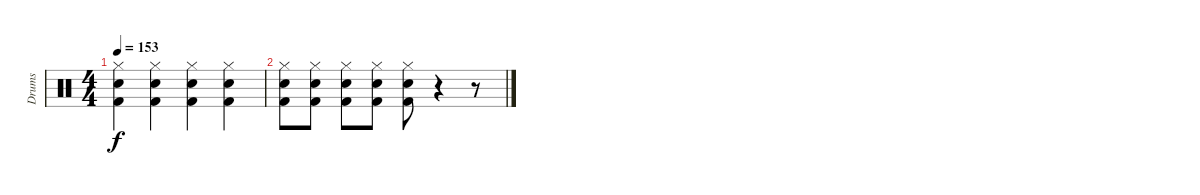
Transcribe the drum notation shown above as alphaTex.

\track ("Drums" "Drums") {instrument percussion}
\staff {score}
\articulation defaults
\ts (4 4)
\tempo 153
\clef neutral
\ks c
("Hi-Hat (closed)" "Electric Snare (hit)" "Kick (hit) 2").4{dy f} ("Hi-Hat (closed)" "Electric Snare (hit)" "Kick (hit) 2").4 ("Hi-Hat (closed)" "Electric Snare (hit)" "Kick (hit) 2").4 ("Hi-Hat (closed)" "Electric Snare (hit)" "Kick (hit) 2").4 |
("Hi-Hat (closed)" "Electric Snare (hit)" "Kick (hit) 2").8 ("Hi-Hat (closed)" "Electric Snare (hit)" "Kick (hit) 2").8 ("Hi-Hat (closed)" "Electric Snare (hit)" "Kick (hit) 2").8 ("Hi-Hat (closed)" "Electric Snare (hit)" "Kick (hit) 2").8 ("Hi-Hat (closed)" "Electric Snare (hit)" "Kick (hit) 2").8 r.4 r.8
